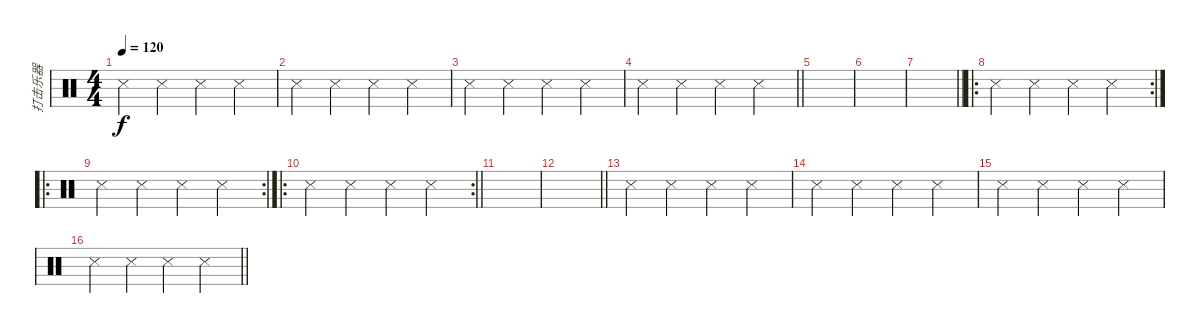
\track ("打击乐器" "打击乐器") {instrument percussion}
\staff {score}
\articulation defaults
\ts (4 4)
\tempo 120
\clef neutral
\ks c "Snare (side stick) 3".4{dy f} "Snare (side stick) 3".4 "Snare (side stick) 3".4 "Snare (side stick) 3".4
|
"Snare (side stick) 3".4 "Snare (side stick) 3".4 "Snare (side stick) 3".4 "Snare (side stick) 3".4 |
"Snare (side stick) 3".4 "Snare (side stick) 3".4 "Snare (side stick) 3".4 "Snare (side stick) 3".4 |
\barLineRight lightlight "Snare (side stick) 3".4 "Snare (side stick) 3".4 "Snare (side stick) 3".4 "Snare (side stick) 3".4
|
|
|
\barLineRight lightlight
|
\ro
\rc 2 "Snare (side stick) 3".4 "Snare (side stick) 3".4 "Snare (side stick) 3".4 "Snare (side stick) 3".4
|
\ro
\rc 2 "Snare (side stick) 3".4 "Snare (side stick) 3".4 "Snare (side stick) 3".4 "Snare (side stick) 3".4
|
\ro
\rc 2
\barLineRight lightlight "Snare (side stick) 3".4 "Snare (side stick) 3".4 "Snare (side stick) 3".4 "Snare (side stick) 3".4
|
|
\barLineRight lightlight
|
"Snare (side stick) 3".4 "Snare (side stick) 3".4 "Snare (side stick) 3".4 "Snare (side stick) 3".4 |
"Snare (side stick) 3".4 "Snare (side stick) 3".4 "Snare (side stick) 3".4 "Snare (side stick) 3".4 |
"Snare (side stick) 3".4 "Snare (side stick) 3".4 "Snare (side stick) 3".4 "Snare (side stick) 3".4 |
\barLineRight lightlight "Snare (side stick) 3".4 "Snare (side stick) 3".4 "Snare (side stick) 3".4 "Snare (side stick) 3".4
